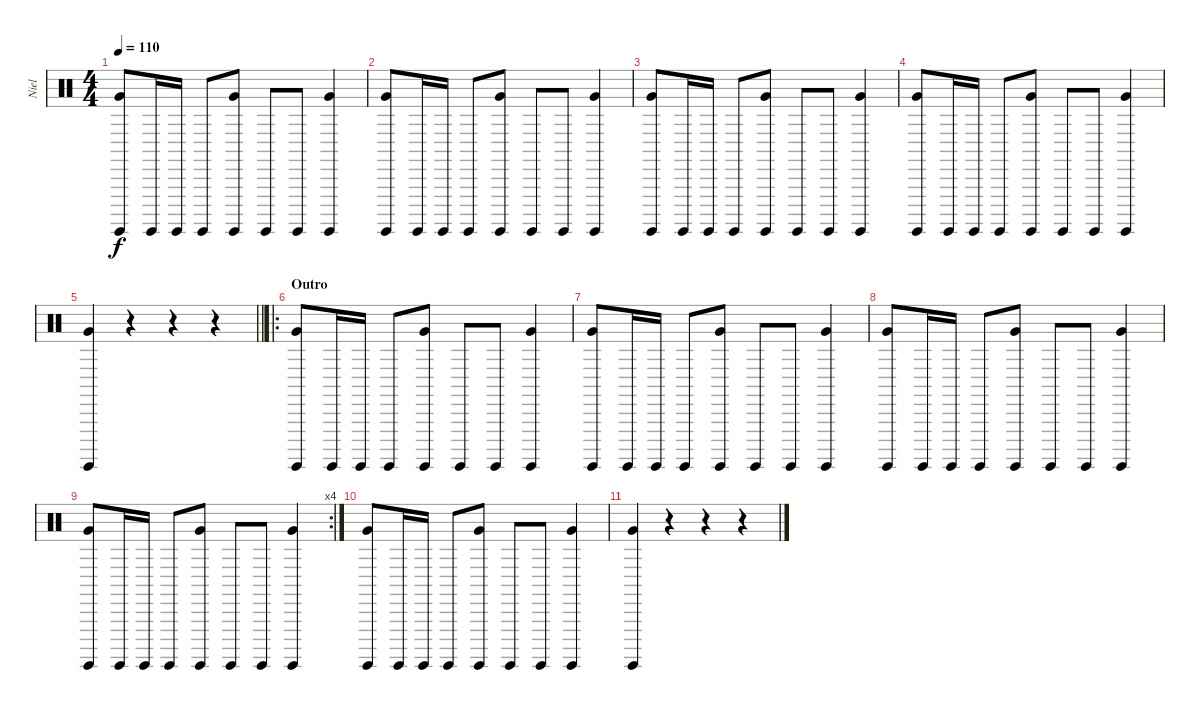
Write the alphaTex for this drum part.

\track ("Niel" "Niel") {instrument percussion bank 1}
\staff {score}
\articulation defaults
\ts (4 4)
\tempo 110
\clef neutral
\ks c
("Very Low Tom (hit)" "Surdo (hit)").8{dy f} "Surdo (hit)".16 "Surdo (hit)".16 "Surdo (hit)".8 ("Very Low Tom (hit)" "Surdo (hit)").8 "Surdo (hit)".8 "Surdo (hit)".8 ("Very Low Tom (hit)" "Surdo (hit)").4 |
("Very Low Tom (hit)" "Surdo (hit)").8 "Surdo (hit)".16 "Surdo (hit)".16 "Surdo (hit)".8 ("Very Low Tom (hit)" "Surdo (hit)").8 "Surdo (hit)".8 "Surdo (hit)".8 ("Very Low Tom (hit)" "Surdo (hit)").4 |
("Very Low Tom (hit)" "Surdo (hit)").8 "Surdo (hit)".16 "Surdo (hit)".16 "Surdo (hit)".8 ("Very Low Tom (hit)" "Surdo (hit)").8 "Surdo (hit)".8 "Surdo (hit)".8 ("Very Low Tom (hit)" "Surdo (hit)").4 |
("Very Low Tom (hit)" "Surdo (hit)").8 "Surdo (hit)".16 "Surdo (hit)".16 "Surdo (hit)".8 ("Very Low Tom (hit)" "Surdo (hit)").8 "Surdo (hit)".8 "Surdo (hit)".8 ("Very Low Tom (hit)" "Surdo (hit)").4 |
\barLineRight lightlight
("Very Low Tom (hit)" "Surdo (hit)").4 r.4 r.4 r.4 |
\ro
\section ("" "Outro")
("Very Low Tom (hit)" "Surdo (hit)").8 "Surdo (hit)".16 "Surdo (hit)".16 "Surdo (hit)".8 ("Very Low Tom (hit)" "Surdo (hit)").8 "Surdo (hit)".8 "Surdo (hit)".8 ("Very Low Tom (hit)" "Surdo (hit)").4 |
("Very Low Tom (hit)" "Surdo (hit)").8 "Surdo (hit)".16 "Surdo (hit)".16 "Surdo (hit)".8 ("Very Low Tom (hit)" "Surdo (hit)").8 "Surdo (hit)".8 "Surdo (hit)".8 ("Very Low Tom (hit)" "Surdo (hit)").4 |
("Very Low Tom (hit)" "Surdo (hit)").8 "Surdo (hit)".16 "Surdo (hit)".16 "Surdo (hit)".8 ("Very Low Tom (hit)" "Surdo (hit)").8 "Surdo (hit)".8 "Surdo (hit)".8 ("Very Low Tom (hit)" "Surdo (hit)").4 |
\rc 4
("Very Low Tom (hit)" "Surdo (hit)").8 "Surdo (hit)".16 "Surdo (hit)".16 "Surdo (hit)".8 ("Very Low Tom (hit)" "Surdo (hit)").8 "Surdo (hit)".8 "Surdo (hit)".8 ("Very Low Tom (hit)" "Surdo (hit)").4 |
("Very Low Tom (hit)" "Surdo (hit)").8 "Surdo (hit)".16 "Surdo (hit)".16 "Surdo (hit)".8 ("Very Low Tom (hit)" "Surdo (hit)").8 "Surdo (hit)".8 "Surdo (hit)".8 ("Very Low Tom (hit)" "Surdo (hit)").4 |
("Very Low Tom (hit)" "Surdo (hit)").4 r.4 r.4 r.4
